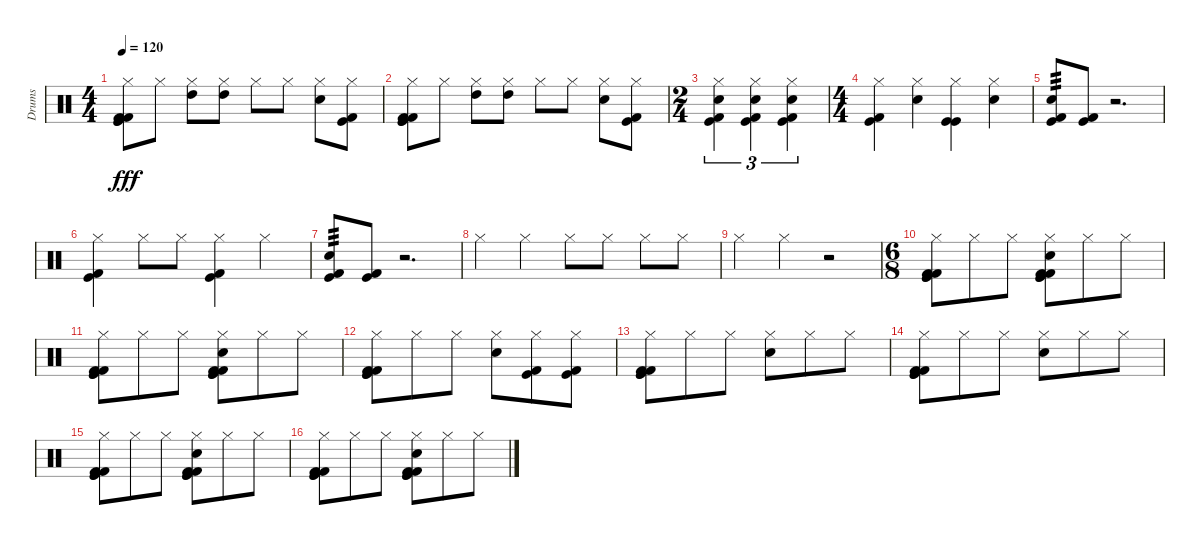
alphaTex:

\track ("Drums" "Drums") {instrument percussion}
\staff {score}
\articulation defaults
\ts (4 4)
\tempo 120
\clef neutral
\ks c
("Hi-Hat (closed)" "Kick (hit) 2" "Kick (hit) 2" "Kick (hit)" "Kick (hit)").8{dy fff} "Hi-Hat (closed)".8 ("Hi-Hat (closed)" "High Tom (hit)").8 ("Hi-Hat (closed)" "High Tom (hit)").8 "Hi-Hat (closed)".8 "Hi-Hat (closed)".8 ("Hi-Hat (closed)" "Snare (hit) 2").8 ("Hi-Hat (closed)" "Kick (hit) 2" "Kick (hit)").8 |
("Hi-Hat (closed)" "Kick (hit) 2" "Kick (hit) 2" "Kick (hit)" "Kick (hit)").8 "Hi-Hat (closed)".8 ("Hi-Hat (closed)" "High Tom (hit)").8 ("Hi-Hat (closed)" "High Tom (hit)").8 "Hi-Hat (closed)".8 "Hi-Hat (closed)".8 ("Hi-Hat (closed)" "Snare (hit) 2").8 ("Hi-Hat (closed)" "Kick (hit) 2" "Kick (hit)").8 |
\ts (2 4)
("Hi-Hat (closed)" "Snare (hit) 2" "Kick (hit) 2" "Kick (hit)").4{tu (3 2)} ("Hi-Hat (closed)" "Snare (hit) 2" "Kick (hit) 2" "Kick (hit)").4{tu (3 2)} ("Hi-Hat (closed)" "Snare (hit) 2" "Kick (hit) 2" "Kick (hit)").4{tu (3 2)} |
\ts (4 4)
("Hi-Hat (closed)" "Kick (hit) 2" "Kick (hit)").4 ("Hi-Hat (closed)" "Snare (hit) 2").4 ("Hi-Hat (closed)" "Kick (hit)" "Kick (hit)").4 ("Hi-Hat (closed)" "Snare (hit) 2").4 |
("Snare (hit) 2" "Kick (hit) 2" "Kick (hit)").8{tp 3} ("Kick (hit) 2" "Kick (hit)").8 r.2{d} |
("Hi-Hat (closed)" "Kick (hit) 2" "Kick (hit)").4 "Hi-Hat (closed)".8 "Hi-Hat (closed)".8 ("Hi-Hat (closed)" "Kick (hit) 2" "Kick (hit)").4 "Hi-Hat (closed)".4 |
("Snare (hit) 2" "Kick (hit) 2" "Kick (hit)").8{tp 3} ("Kick (hit) 2" "Kick (hit)").8 r.2{d} |
"Hi-Hat (closed)".4 "Hi-Hat (closed)".4 "Hi-Hat (closed)".8 "Hi-Hat (closed)".8 "Hi-Hat (closed)".8 "Hi-Hat (closed)".8 |
"Hi-Hat (closed)".4 "Hi-Hat (closed)".4 r.2 |
\ts (6 8)
("Hi-Hat (closed)" "Kick (hit)" "Kick (hit) 2" "Kick (hit) 2" "Kick (hit)").8 "Hi-Hat (closed)".8 "Hi-Hat (closed)".8 ("Hi-Hat (closed)" "Snare (hit) 2" "Kick (hit) 2" "Kick (hit) 2" "Kick (hit)" "Kick (hit)").8 "Hi-Hat (closed)".8 "Hi-Hat (closed)".8 |
("Hi-Hat (closed)" "Kick (hit)" "Kick (hit) 2" "Kick (hit) 2" "Kick (hit)").8 "Hi-Hat (closed)".8 "Hi-Hat (closed)".8 ("Hi-Hat (closed)" "Snare (hit) 2" "Kick (hit) 2" "Kick (hit) 2" "Kick (hit)" "Kick (hit)").8 "Hi-Hat (closed)".8 "Hi-Hat (closed)".8 |
("Hi-Hat (closed)" "Kick (hit)" "Kick (hit) 2" "Kick (hit) 2" "Kick (hit)").8 "Hi-Hat (closed)".8 "Hi-Hat (closed)".8 ("Hi-Hat (closed)" "Snare (hit) 2").8 ("Hi-Hat (closed)" "Kick (hit) 2" "Kick (hit)").8 ("Hi-Hat (closed)" "Kick (hit) 2" "Kick (hit)").8 |
("Hi-Hat (closed)" "Kick (hit)" "Kick (hit) 2" "Kick (hit) 2" "Kick (hit)").8 "Hi-Hat (closed)".8 "Hi-Hat (closed)".8 ("Hi-Hat (closed)" "Snare (hit) 2").8 "Hi-Hat (closed)".8 "Hi-Hat (closed)".8 |
("Hi-Hat (closed)" "Kick (hit)" "Kick (hit) 2" "Kick (hit) 2" "Kick (hit)").8 "Hi-Hat (closed)".8 "Hi-Hat (closed)".8 ("Hi-Hat (closed)" "Snare (hit) 2").8 "Hi-Hat (closed)".8 "Hi-Hat (closed)".8 |
("Hi-Hat (closed)" "Kick (hit)" "Kick (hit) 2" "Kick (hit) 2" "Kick (hit)").8 "Hi-Hat (closed)".8 "Hi-Hat (closed)".8 ("Hi-Hat (closed)" "Snare (hit) 2" "Kick (hit) 2" "Kick (hit) 2" "Kick (hit)" "Kick (hit)").8 "Hi-Hat (closed)".8 "Hi-Hat (closed)".8 |
("Hi-Hat (closed)" "Kick (hit)" "Kick (hit) 2" "Kick (hit) 2" "Kick (hit)").8 "Hi-Hat (closed)".8 "Hi-Hat (closed)".8 ("Hi-Hat (closed)" "Snare (hit) 2" "Kick (hit) 2" "Kick (hit) 2" "Kick (hit)" "Kick (hit)").8 "Hi-Hat (closed)".8 "Hi-Hat (closed)".8
